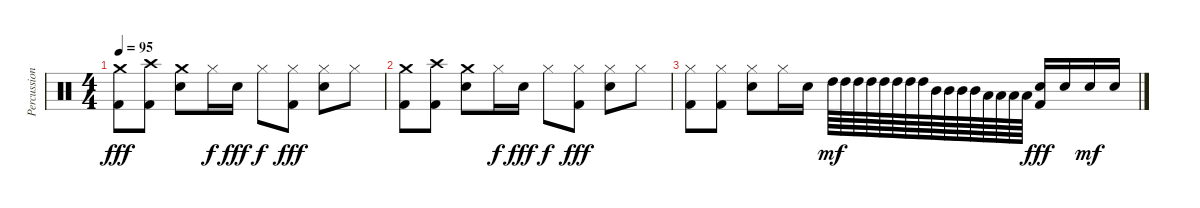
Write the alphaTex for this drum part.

\track ("Percussion" "Percussion") {instrument percussion}
\staff {score}
\articulation defaults
\ts (4 4)
\tempo 95
\clef neutral
\ks c
("Crash medium (hit)" "Kick (hit) 2").8{dy fff} ("Crash high (hit)" "Kick (hit) 2").8 ("Crash medium (hit)" "Electric Snare (hit)").8 "Hi-Hat (closed)".16{dy f} "Electric Snare (hit)".16{dy fff} "Hi-Hat (closed)".8{dy f} ("Hi-Hat (closed)" "Kick (hit) 2").8{dy fff} ("Hi-Hat (closed)" "Electric Snare (hit)").8 "Hi-Hat (closed)".8 |
("Crash medium (hit)" "Kick (hit) 2").8 ("Crash high (hit)" "Kick (hit) 2").8 ("Crash medium (hit)" "Electric Snare (hit)").8 "Hi-Hat (closed)".16{dy f} "Electric Snare (hit)".16{dy fff} "Hi-Hat (closed)".8{dy f} ("Hi-Hat (closed)" "Kick (hit) 2").8{dy fff} ("Hi-Hat (closed)" "Electric Snare (hit)").8 "Hi-Hat (closed)".8 |
("Hi-Hat (closed)" "Kick (hit) 2").8 ("Hi-Hat (closed)" "Kick (hit) 2").8 ("Hi-Hat (closed)" "Electric Snare (hit)").8 "Hi-Hat (closed)".16 "Electric Snare (hit)".16 "High Tom (hit)".64{dy mf} "High Tom (hit)".64 "High Tom (hit)".64 "High Tom (hit)".64 "High Tom (hit)".64 "High Tom (hit)".64 "High Tom (hit)".64 "High Tom (hit)".64 "Mid Tom (hit)".64 "Mid Tom (hit)".64 "Mid Tom (hit)".64 "Mid Tom (hit)".64 "Low Tom (hit)".64 "Low Tom (hit)".64 "Low Tom (hit)".64 "Low Tom (hit)".64 ("Snare (hit) 2" "Kick (hit) 2").16{dy fff} "Snare (hit) 2".16 "Snare (hit) 2".16{dy mf} "Snare (hit) 2".16
